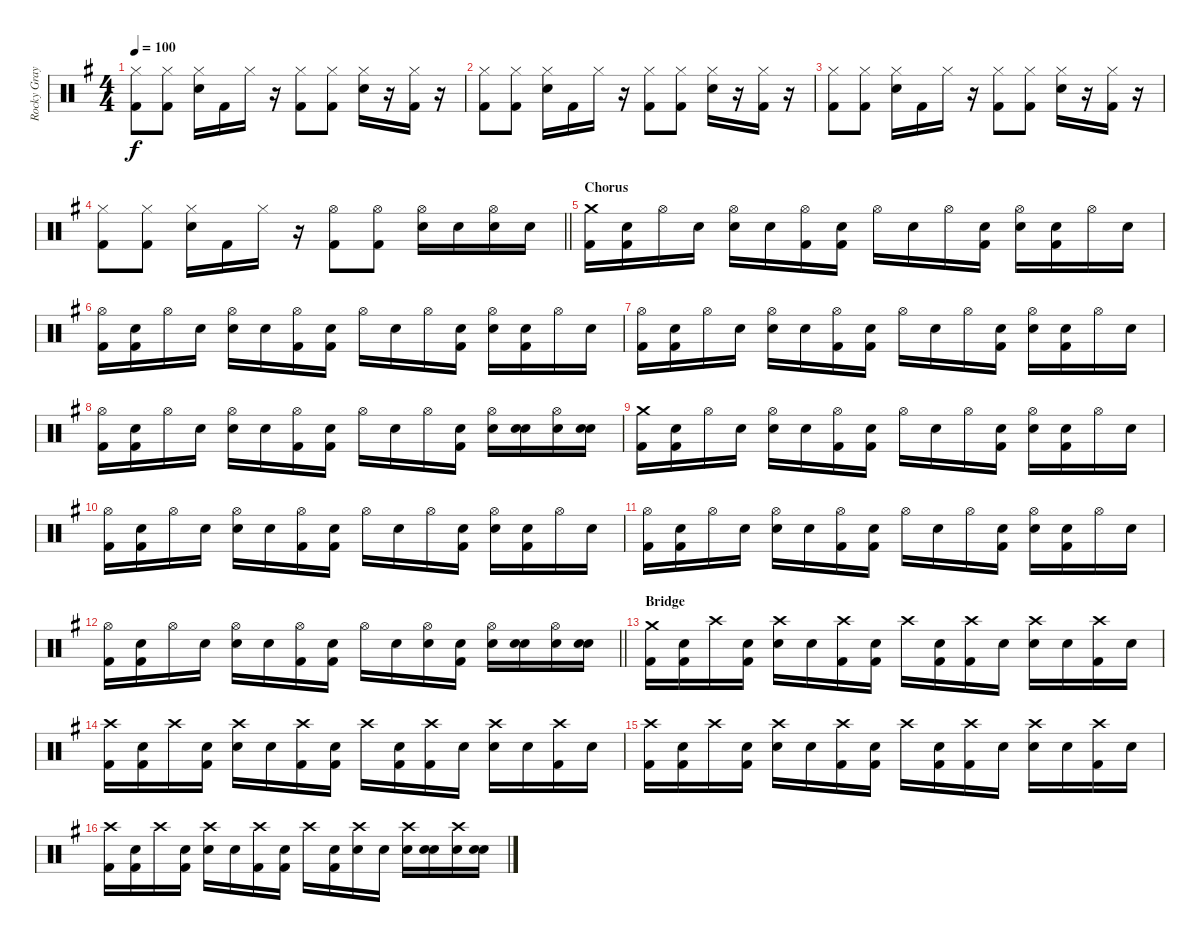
\track ("Rocky Gray" "Rocky Gray") {instrument percussion}
\staff {score}
\articulation defaults
\ts (4 4)
\tempo 100
\clef neutral
\ks g
("Hi-Hat (closed)" "Kick (hit) 2").8{dy f} ("Hi-Hat (closed)" "Kick (hit) 2").8 ("Hi-Hat (closed)" "Snare (hit) 2").16 "Kick (hit) 2".16 "Hi-Hat (closed)".16 r.16 ("Hi-Hat (closed)" "Kick (hit) 2").8 ("Hi-Hat (closed)" "Kick (hit) 2").8 ("Hi-Hat (closed)" "Snare (hit) 2").16 r.16 ("Hi-Hat (closed)" "Kick (hit) 2").16 r.16 |
("Hi-Hat (closed)" "Kick (hit) 2").8 ("Hi-Hat (closed)" "Kick (hit) 2").8 ("Hi-Hat (closed)" "Snare (hit) 2").16 "Kick (hit) 2".16 "Hi-Hat (closed)".16 r.16 ("Hi-Hat (closed)" "Kick (hit) 2").8 ("Hi-Hat (closed)" "Kick (hit) 2").8 ("Hi-Hat (closed)" "Snare (hit) 2").16 r.16 ("Hi-Hat (closed)" "Kick (hit) 2").16 r.16 |
("Hi-Hat (closed)" "Kick (hit) 2").8 ("Hi-Hat (closed)" "Kick (hit) 2").8 ("Hi-Hat (closed)" "Snare (hit) 2").16 "Kick (hit) 2".16 "Hi-Hat (closed)".16 r.16 ("Hi-Hat (closed)" "Kick (hit) 2").8 ("Hi-Hat (closed)" "Kick (hit) 2").8 ("Hi-Hat (closed)" "Snare (hit) 2").16 r.16 ("Hi-Hat (closed)" "Kick (hit) 2").16 r.16 |
\barLineRight lightlight
("Hi-Hat (closed)" "Kick (hit) 2").8 ("Hi-Hat (closed)" "Kick (hit) 2").8 ("Hi-Hat (closed)" "Snare (hit) 2").16 "Kick (hit) 2".16 "Hi-Hat (closed)".16 r.16 ("Hi-Hat (open)" "Kick (hit) 2").8 ("Hi-Hat (open)" "Kick (hit) 2").8 ("Hi-Hat (open)" "Snare (hit) 2").16 "Snare (hit) 2".16 ("Hi-Hat (open)" "Snare (hit) 2").16 "Snare (hit) 2".16 |
\section ("" "Chorus")
("Crash medium (hit)" "Kick (hit) 2").16 ("Snare (hit)" "Kick (hit) 2").16 "Hi-Hat (open)".16 "Snare (hit)".16 ("Hi-Hat (open)" "Snare (hit) 2").16 "Snare (hit)".16 ("Hi-Hat (open)" "Kick (hit) 2").16 ("Snare (hit)" "Kick (hit) 2").16 "Hi-Hat (open)".16 "Snare (hit)".16 "Hi-Hat (open)".16 ("Snare (hit)" "Kick (hit) 2").16 ("Hi-Hat (open)" "Snare (hit) 2").16 ("Snare (hit)" "Kick (hit) 2").16 "Hi-Hat (open)".16 "Snare (hit)".16 |
("Hi-Hat (open)" "Kick (hit) 2").16 ("Snare (hit)" "Kick (hit) 2").16 "Hi-Hat (open)".16 "Snare (hit)".16 ("Hi-Hat (open)" "Snare (hit) 2").16 "Snare (hit)".16 ("Hi-Hat (open)" "Kick (hit) 2").16 ("Snare (hit)" "Kick (hit) 2").16 "Hi-Hat (open)".16 "Snare (hit)".16 "Hi-Hat (open)".16 ("Snare (hit)" "Kick (hit) 2").16 ("Hi-Hat (open)" "Snare (hit) 2").16 ("Snare (hit)" "Kick (hit) 2").16 "Hi-Hat (open)".16 "Snare (hit)".16 |
("Hi-Hat (open)" "Kick (hit) 2").16 ("Snare (hit)" "Kick (hit) 2").16 "Hi-Hat (open)".16 "Snare (hit)".16 ("Hi-Hat (open)" "Snare (hit) 2").16 "Snare (hit)".16 ("Hi-Hat (open)" "Kick (hit) 2").16 ("Snare (hit)" "Kick (hit) 2").16 "Hi-Hat (open)".16 "Snare (hit)".16 "Hi-Hat (open)".16 ("Snare (hit)" "Kick (hit) 2").16 ("Hi-Hat (open)" "Snare (hit) 2").16 ("Snare (hit)" "Kick (hit) 2").16 "Hi-Hat (open)".16 "Snare (hit)".16 |
("Hi-Hat (open)" "Kick (hit) 2").16 ("Snare (hit)" "Kick (hit) 2").16 "Hi-Hat (open)".16 "Snare (hit)".16 ("Hi-Hat (open)" "Snare (hit) 2").16 "Snare (hit)".16 ("Hi-Hat (open)" "Kick (hit) 2").16 ("Snare (hit)" "Kick (hit) 2").16 "Hi-Hat (open)".16 "Snare (hit)".16 "Hi-Hat (open)".16 ("Snare (hit)" "Kick (hit) 2").16 ("Hi-Hat (open)" "Snare (hit) 2").16 ("Snare (hit)" "Snare (hit) 2").16 ("Hi-Hat (open)" "Snare (hit) 2").16 ("Snare (hit)" "Snare (hit) 2").16 |
("Crash medium (hit)" "Kick (hit) 2").16 ("Snare (hit)" "Kick (hit) 2").16 "Hi-Hat (open)".16 "Snare (hit)".16 ("Hi-Hat (open)" "Snare (hit) 2").16 "Snare (hit)".16 ("Hi-Hat (open)" "Kick (hit) 2").16 ("Snare (hit)" "Kick (hit) 2").16 "Hi-Hat (open)".16 "Snare (hit)".16 "Hi-Hat (open)".16 ("Snare (hit)" "Kick (hit) 2").16 ("Hi-Hat (open)" "Snare (hit) 2").16 ("Snare (hit)" "Kick (hit) 2").16 "Hi-Hat (open)".16 "Snare (hit)".16 |
("Hi-Hat (open)" "Kick (hit) 2").16 ("Snare (hit)" "Kick (hit) 2").16 "Hi-Hat (open)".16 "Snare (hit)".16 ("Hi-Hat (open)" "Snare (hit) 2").16 "Snare (hit)".16 ("Hi-Hat (open)" "Kick (hit) 2").16 ("Snare (hit)" "Kick (hit) 2").16 "Hi-Hat (open)".16 "Snare (hit)".16 "Hi-Hat (open)".16 ("Snare (hit)" "Kick (hit) 2").16 ("Hi-Hat (open)" "Snare (hit) 2").16 ("Snare (hit)" "Kick (hit) 2").16 "Hi-Hat (open)".16 "Snare (hit)".16 |
("Hi-Hat (open)" "Kick (hit) 2").16 ("Snare (hit)" "Kick (hit) 2").16 "Hi-Hat (open)".16 "Snare (hit)".16 ("Hi-Hat (open)" "Snare (hit) 2").16 "Snare (hit)".16 ("Hi-Hat (open)" "Kick (hit) 2").16 ("Snare (hit)" "Kick (hit) 2").16 "Hi-Hat (open)".16 "Snare (hit)".16 "Hi-Hat (open)".16 ("Snare (hit)" "Kick (hit) 2").16 ("Hi-Hat (open)" "Snare (hit) 2").16 ("Snare (hit)" "Kick (hit) 2").16 "Hi-Hat (open)".16 "Snare (hit)".16 |
\barLineRight lightlight
("Hi-Hat (open)" "Kick (hit) 2").16 ("Snare (hit)" "Kick (hit) 2").16 "Hi-Hat (open)".16 "Snare (hit)".16 ("Hi-Hat (open)" "Snare (hit) 2").16 "Snare (hit)".16 ("Hi-Hat (open)" "Kick (hit) 2").16 ("Snare (hit)" "Kick (hit) 2").16 "Hi-Hat (open)".16 "Snare (hit)".16 ("Hi-Hat (open)" "Snare (hit) 2").16 ("Snare (hit)" "Kick (hit) 2").16 ("Hi-Hat (open)" "Snare (hit) 2").16 ("Snare (hit)" "Snare (hit) 2").16 ("Hi-Hat (open)" "Snare (hit) 2").16 ("Snare (hit)" "Snare (hit) 2").16 |
\section ("" "Bridge")
("Crash medium (hit)" "Kick (hit) 2").16 ("Snare (hit)" "Kick (hit) 2").16 "Crash high (hit)".16 ("Snare (hit)" "Kick (hit) 2").16 ("Crash high (hit)" "Electric Snare (hit)").16 "Snare (hit)".16 ("Crash high (hit)" "Kick (hit) 2").16 ("Snare (hit)" "Kick (hit) 2").16 "Crash high (hit)".16 ("Snare (hit)" "Kick (hit) 2").16 ("Crash high (hit)" "Kick (hit) 2").16 "Snare (hit)".16 ("Crash high (hit)" "Electric Snare (hit)").16 "Snare (hit)".16 ("Crash high (hit)" "Kick (hit) 2").16 "Snare (hit)".16 |
("Crash high (hit)" "Kick (hit) 2").16 ("Snare (hit)" "Kick (hit) 2").16 "Crash high (hit)".16 ("Snare (hit)" "Kick (hit) 2").16 ("Crash high (hit)" "Electric Snare (hit)").16 "Snare (hit)".16 ("Crash high (hit)" "Kick (hit) 2").16 ("Snare (hit)" "Kick (hit) 2").16 "Crash high (hit)".16 ("Snare (hit)" "Kick (hit) 2").16 ("Crash high (hit)" "Kick (hit) 2").16 "Snare (hit)".16 ("Crash high (hit)" "Electric Snare (hit)").16 "Snare (hit)".16 ("Crash high (hit)" "Kick (hit) 2").16 "Snare (hit)".16 |
("Crash high (hit)" "Kick (hit) 2").16 ("Snare (hit)" "Kick (hit) 2").16 "Crash high (hit)".16 ("Snare (hit)" "Kick (hit) 2").16 ("Crash high (hit)" "Electric Snare (hit)").16 "Snare (hit)".16 ("Crash high (hit)" "Kick (hit) 2").16 ("Snare (hit)" "Kick (hit) 2").16 "Crash high (hit)".16 ("Snare (hit)" "Kick (hit) 2").16 ("Crash high (hit)" "Kick (hit) 2").16 "Snare (hit)".16 ("Crash high (hit)" "Electric Snare (hit)").16 "Snare (hit)".16 ("Crash high (hit)" "Kick (hit) 2").16 "Snare (hit)".16 |
("Crash high (hit)" "Kick (hit) 2").16 ("Snare (hit)" "Kick (hit) 2").16 "Crash high (hit)".16 ("Snare (hit)" "Kick (hit) 2").16 ("Crash high (hit)" "Electric Snare (hit)").16 "Snare (hit)".16 ("Crash high (hit)" "Kick (hit) 2").16 ("Snare (hit)" "Kick (hit) 2").16 "Crash high (hit)".16 ("Snare (hit)" "Kick (hit) 2").16 ("Crash high (hit)" "Electric Snare (hit)").16 "Snare (hit)".16 ("Crash high (hit)" "Electric Snare (hit)").16 ("Snare (hit)" "Electric Snare (hit)").16 ("Crash high (hit)" "Electric Snare (hit)").16 ("Snare (hit)" "Electric Snare (hit)").16
